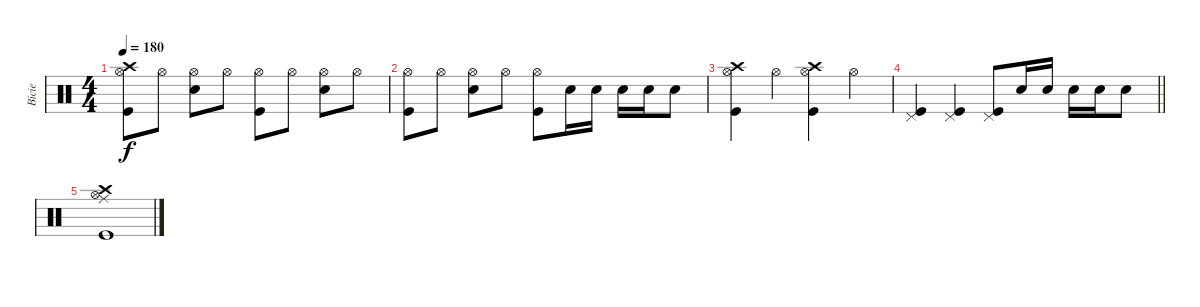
\track ("Bicie" "Bicie") {instrument percussion}
\staff {score}
\articulation defaults
\ts (4 4)
\tempo 180
\clef neutral
\ks c
("Crash high (hit)" "Hi-Hat (open)" "Kick (hit)").8{dy f} "Hi-Hat (open)".8 ("Hi-Hat (open)" "Snare (hit) 2").8 "Hi-Hat (open)".8 ("Hi-Hat (open)" "Kick (hit)").8 "Hi-Hat (open)".8 ("Hi-Hat (open)" "Snare (hit) 2").8 "Hi-Hat (open)".8 |
("Hi-Hat (open)" "Kick (hit)").8 "Hi-Hat (open)".8 ("Hi-Hat (open)" "Snare (hit) 2").8 "Hi-Hat (open)".8 ("Hi-Hat (open)" "Kick (hit)").8 "Snare (hit) 2".16 "Snare (hit) 2".16 "Snare (hit) 2".16 "Snare (hit) 2".16 "Snare (hit) 2".8 |
("Crash high (hit)" "Hi-Hat (open)" "Kick (hit)").4 "Hi-Hat (open)".4 ("Crash high (hit)" "Hi-Hat (open)" "Kick (hit)").4 "Hi-Hat (open)".4 |
\barLineRight lightlight
("Pedal Hi-Hat (hit)" "Kick (hit)").4 ("Pedal Hi-Hat (hit)" "Kick (hit)").4 ("Pedal Hi-Hat (hit)" "Kick (hit)").8 "Snare (hit) 2".16 "Snare (hit) 2".16 "Snare (hit) 2".16 "Snare (hit) 2".16 "Snare (hit) 2".8 |
("Ride (middle)" "Hi-Hat (open)" "Crash high (hit)" "Kick (hit)").1
